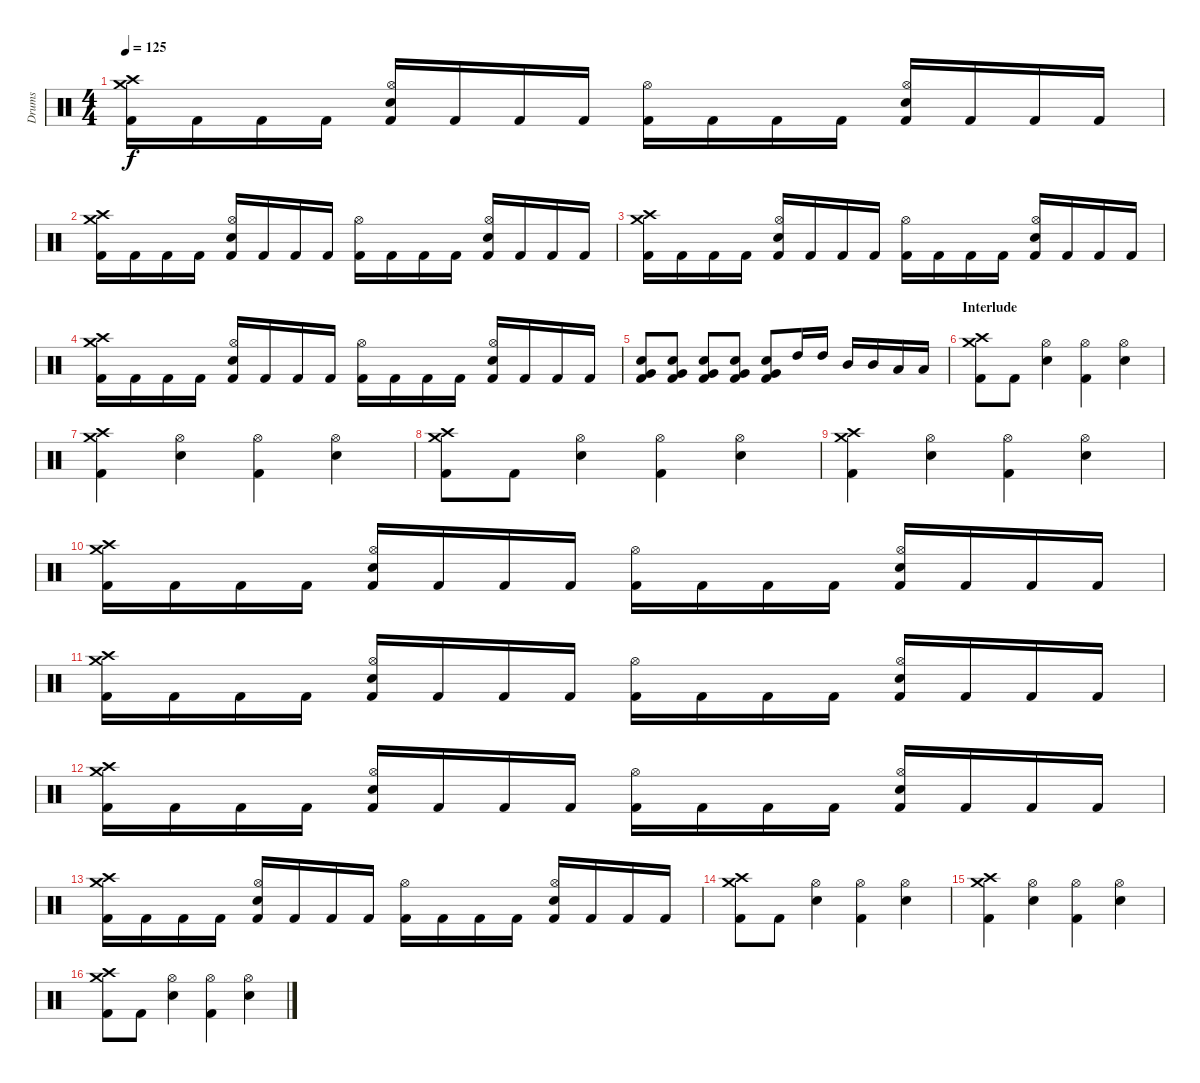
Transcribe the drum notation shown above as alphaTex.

\track ("Drums" "Drums") {instrument percussion}
\staff {score}
\articulation defaults
\ts (4 4)
\tempo 125
\clef neutral
\ks c
("Crash medium (hit)" "Crash high (hit)" "Kick (hit) 2").16{dy f} "Kick (hit) 2".16 "Kick (hit) 2".16 "Kick (hit) 2".16 ("Hi-Hat (open)" "Snare (hit) 2" "Kick (hit) 2").16 "Kick (hit) 2".16 "Kick (hit) 2".16 "Kick (hit) 2".16 ("Hi-Hat (open)" "Kick (hit) 2").16 "Kick (hit) 2".16 "Kick (hit) 2".16 "Kick (hit) 2".16 ("Hi-Hat (open)" "Snare (hit) 2" "Kick (hit) 2").16 "Kick (hit) 2".16 "Kick (hit) 2".16 "Kick (hit) 2".16 |
("Crash medium (hit)" "Crash high (hit)" "Kick (hit) 2").16 "Kick (hit) 2".16 "Kick (hit) 2".16 "Kick (hit) 2".16 ("Hi-Hat (open)" "Snare (hit) 2" "Kick (hit) 2").16 "Kick (hit) 2".16 "Kick (hit) 2".16 "Kick (hit) 2".16 ("Hi-Hat (open)" "Kick (hit) 2").16 "Kick (hit) 2".16 "Kick (hit) 2".16 "Kick (hit) 2".16 ("Hi-Hat (open)" "Snare (hit) 2" "Kick (hit) 2").16 "Kick (hit) 2".16 "Kick (hit) 2".16 "Kick (hit) 2".16 |
("Crash medium (hit)" "Crash high (hit)" "Kick (hit) 2").16 "Kick (hit) 2".16 "Kick (hit) 2".16 "Kick (hit) 2".16 ("Hi-Hat (open)" "Snare (hit) 2" "Kick (hit) 2").16 "Kick (hit) 2".16 "Kick (hit) 2".16 "Kick (hit) 2".16 ("Hi-Hat (open)" "Kick (hit) 2").16 "Kick (hit) 2".16 "Kick (hit) 2".16 "Kick (hit) 2".16 ("Hi-Hat (open)" "Snare (hit) 2" "Kick (hit) 2").16 "Kick (hit) 2".16 "Kick (hit) 2".16 "Kick (hit) 2".16 |
("Crash medium (hit)" "Crash high (hit)" "Kick (hit) 2").16 "Kick (hit) 2".16 "Kick (hit) 2".16 "Kick (hit) 2".16 ("Hi-Hat (open)" "Snare (hit) 2" "Kick (hit) 2").16 "Kick (hit) 2".16 "Kick (hit) 2".16 "Kick (hit) 2".16 ("Hi-Hat (open)" "Kick (hit) 2").16 "Kick (hit) 2".16 "Kick (hit) 2".16 "Kick (hit) 2".16 ("Hi-Hat (open)" "Snare (hit) 2" "Kick (hit) 2").16 "Kick (hit) 2".16 "Kick (hit) 2".16 "Kick (hit) 2".16 |
("Very Low Tom (hit)" "Snare (hit) 2" "Kick (hit) 2").8 ("Very Low Tom (hit)" "Snare (hit) 2" "Kick (hit) 2").8 ("Very Low Tom (hit)" "Snare (hit) 2" "Kick (hit) 2").8 ("Very Low Tom (hit)" "Snare (hit) 2" "Kick (hit) 2").8 ("Very Low Tom (hit)" "Snare (hit) 2" "Kick (hit) 2").8 "High Tom (hit)".16 "High Tom (hit)".16 "Mid Tom (hit)".16 "Mid Tom (hit)".16 "Low Tom (hit)".16 "Low Tom (hit)".16 |
\section ("" "Interlude")
("Crash medium (hit)" "Crash high (hit)" "Kick (hit) 2").8 "Kick (hit) 2".8 ("Hi-Hat (open)" "Snare (hit) 2").4 ("Hi-Hat (open)" "Kick (hit) 2").4 ("Hi-Hat (open)" "Snare (hit) 2").4 |
("Crash medium (hit)" "Crash high (hit)" "Kick (hit) 2").4 ("Hi-Hat (open)" "Snare (hit) 2").4 ("Hi-Hat (open)" "Kick (hit) 2").4 ("Hi-Hat (open)" "Snare (hit) 2").4 |
("Crash medium (hit)" "Crash high (hit)" "Kick (hit) 2").8 "Kick (hit) 2".8 ("Hi-Hat (open)" "Snare (hit) 2").4 ("Hi-Hat (open)" "Kick (hit) 2").4 ("Hi-Hat (open)" "Snare (hit) 2").4 |
("Crash medium (hit)" "Crash high (hit)" "Kick (hit) 2").4 ("Hi-Hat (open)" "Snare (hit) 2").4 ("Hi-Hat (open)" "Kick (hit) 2").4 ("Hi-Hat (open)" "Snare (hit) 2").4 |
("Crash medium (hit)" "Crash high (hit)" "Kick (hit) 2").16 "Kick (hit) 2".16 "Kick (hit) 2".16 "Kick (hit) 2".16 ("Hi-Hat (open)" "Snare (hit) 2" "Kick (hit) 2").16 "Kick (hit) 2".16 "Kick (hit) 2".16 "Kick (hit) 2".16 ("Hi-Hat (open)" "Kick (hit) 2").16 "Kick (hit) 2".16 "Kick (hit) 2".16 "Kick (hit) 2".16 ("Hi-Hat (open)" "Snare (hit) 2" "Kick (hit) 2").16 "Kick (hit) 2".16 "Kick (hit) 2".16 "Kick (hit) 2".16 |
("Crash medium (hit)" "Crash high (hit)" "Kick (hit) 2").16 "Kick (hit) 2".16 "Kick (hit) 2".16 "Kick (hit) 2".16 ("Hi-Hat (open)" "Snare (hit) 2" "Kick (hit) 2").16 "Kick (hit) 2".16 "Kick (hit) 2".16 "Kick (hit) 2".16 ("Hi-Hat (open)" "Kick (hit) 2").16 "Kick (hit) 2".16 "Kick (hit) 2".16 "Kick (hit) 2".16 ("Hi-Hat (open)" "Snare (hit) 2" "Kick (hit) 2").16 "Kick (hit) 2".16 "Kick (hit) 2".16 "Kick (hit) 2".16 |
("Crash medium (hit)" "Crash high (hit)" "Kick (hit) 2").16 "Kick (hit) 2".16 "Kick (hit) 2".16 "Kick (hit) 2".16 ("Hi-Hat (open)" "Snare (hit) 2" "Kick (hit) 2").16 "Kick (hit) 2".16 "Kick (hit) 2".16 "Kick (hit) 2".16 ("Hi-Hat (open)" "Kick (hit) 2").16 "Kick (hit) 2".16 "Kick (hit) 2".16 "Kick (hit) 2".16 ("Hi-Hat (open)" "Snare (hit) 2" "Kick (hit) 2").16 "Kick (hit) 2".16 "Kick (hit) 2".16 "Kick (hit) 2".16 |
("Crash medium (hit)" "Crash high (hit)" "Kick (hit) 2").16 "Kick (hit) 2".16 "Kick (hit) 2".16 "Kick (hit) 2".16 ("Hi-Hat (open)" "Snare (hit) 2" "Kick (hit) 2").16 "Kick (hit) 2".16 "Kick (hit) 2".16 "Kick (hit) 2".16 ("Hi-Hat (open)" "Kick (hit) 2").16 "Kick (hit) 2".16 "Kick (hit) 2".16 "Kick (hit) 2".16 ("Hi-Hat (open)" "Snare (hit) 2" "Kick (hit) 2").16 "Kick (hit) 2".16 "Kick (hit) 2".16 "Kick (hit) 2".16 |
("Crash medium (hit)" "Crash high (hit)" "Kick (hit) 2").8 "Kick (hit) 2".8 ("Hi-Hat (open)" "Snare (hit) 2").4 ("Hi-Hat (open)" "Kick (hit) 2").4 ("Hi-Hat (open)" "Snare (hit) 2").4 |
("Crash medium (hit)" "Crash high (hit)" "Kick (hit) 2").4 ("Hi-Hat (open)" "Snare (hit) 2").4 ("Hi-Hat (open)" "Kick (hit) 2").4 ("Hi-Hat (open)" "Snare (hit) 2").4 |
("Crash medium (hit)" "Crash high (hit)" "Kick (hit) 2").8 "Kick (hit) 2".8 ("Hi-Hat (open)" "Snare (hit) 2").4 ("Hi-Hat (open)" "Kick (hit) 2").4 ("Hi-Hat (open)" "Snare (hit) 2").4
